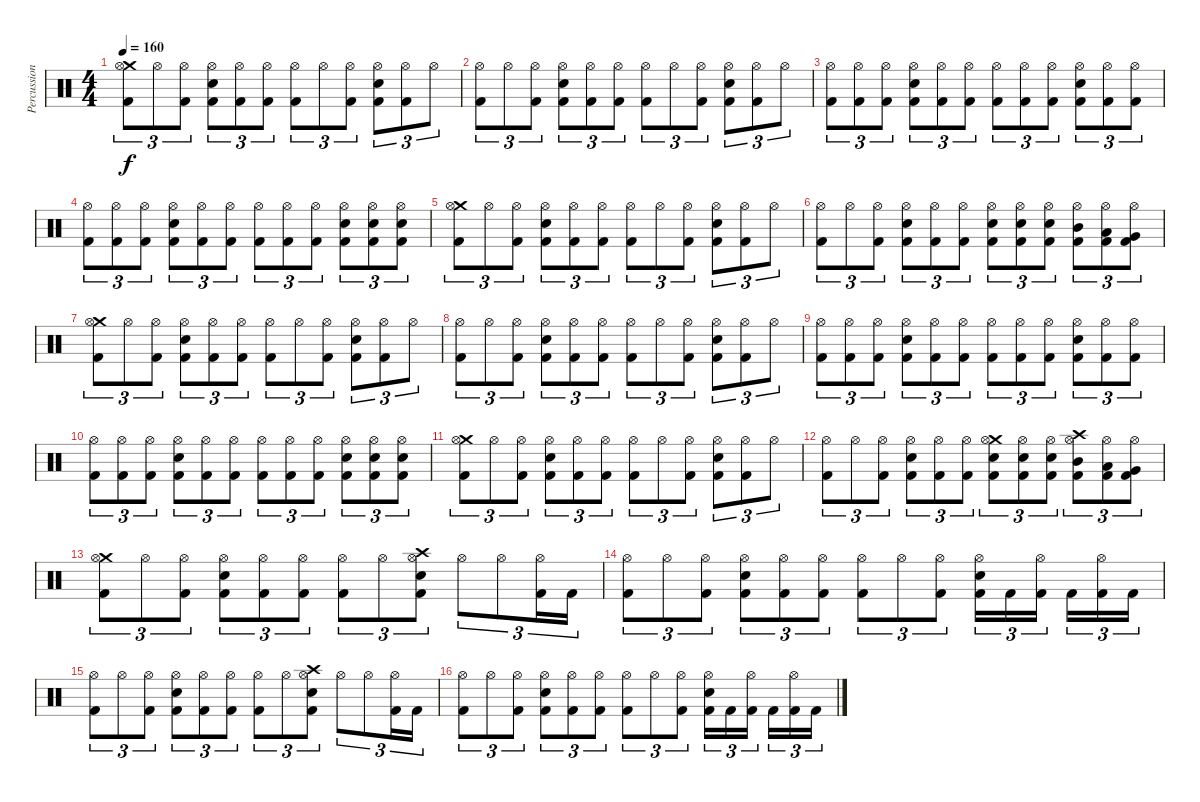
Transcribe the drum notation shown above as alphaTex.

\track ("Percussion" "Percussion") {instrument percussion}
\staff {score}
\articulation defaults
\ts (4 4)
\tempo 160
\clef neutral
\ks c
("Crash medium (hit)" "Hi-Hat (open)" "Kick (hit) 2").8{tu (3 2) dy f} "Hi-Hat (open)".8{tu (3 2)} ("Hi-Hat (open)" "Kick (hit) 2").8{tu (3 2)} ("Hi-Hat (open)" "Electric Snare (hit)" "Kick (hit) 2").8{tu (3 2)} ("Hi-Hat (open)" "Kick (hit) 2").8{tu (3 2)} ("Hi-Hat (open)" "Kick (hit) 2").8{tu (3 2)} ("Hi-Hat (open)" "Kick (hit) 2").8{tu (3 2)} "Hi-Hat (open)".8{tu (3 2)} ("Hi-Hat (open)" "Kick (hit) 2").8{tu (3 2)} ("Hi-Hat (open)" "Electric Snare (hit)" "Kick (hit) 2").8{tu (3 2)} ("Hi-Hat (open)" "Kick (hit) 2").8{tu (3 2)} "Hi-Hat (open)".8{tu (3 2)} |
("Hi-Hat (open)" "Kick (hit) 2").8{tu (3 2)} "Hi-Hat (open)".8{tu (3 2)} ("Hi-Hat (open)" "Kick (hit) 2").8{tu (3 2)} ("Hi-Hat (open)" "Electric Snare (hit)" "Kick (hit) 2").8{tu (3 2)} ("Hi-Hat (open)" "Kick (hit) 2").8{tu (3 2)} ("Hi-Hat (open)" "Kick (hit) 2").8{tu (3 2)} ("Hi-Hat (open)" "Kick (hit) 2").8{tu (3 2)} "Hi-Hat (open)".8{tu (3 2)} ("Hi-Hat (open)" "Kick (hit) 2").8{tu (3 2)} ("Hi-Hat (open)" "Electric Snare (hit)" "Kick (hit) 2").8{tu (3 2)} ("Hi-Hat (open)" "Kick (hit) 2").8{tu (3 2)} "Hi-Hat (open)".8{tu (3 2)} |
("Hi-Hat (open)" "Kick (hit) 2").8{tu (3 2)} ("Hi-Hat (open)" "Kick (hit) 2").8{tu (3 2)} ("Hi-Hat (open)" "Kick (hit) 2").8{tu (3 2)} ("Hi-Hat (open)" "Electric Snare (hit)" "Kick (hit) 2").8{tu (3 2)} ("Hi-Hat (open)" "Kick (hit) 2").8{tu (3 2)} ("Hi-Hat (open)" "Kick (hit) 2").8{tu (3 2)} ("Hi-Hat (open)" "Kick (hit) 2").8{tu (3 2)} ("Hi-Hat (open)" "Kick (hit) 2").8{tu (3 2)} ("Hi-Hat (open)" "Kick (hit) 2").8{tu (3 2)} ("Hi-Hat (open)" "Electric Snare (hit)" "Kick (hit) 2").8{tu (3 2)} ("Hi-Hat (open)" "Kick (hit) 2").8{tu (3 2)} ("Hi-Hat (open)" "Kick (hit) 2").8{tu (3 2)} |
("Hi-Hat (open)" "Kick (hit) 2").8{tu (3 2)} ("Hi-Hat (open)" "Kick (hit) 2").8{tu (3 2)} ("Hi-Hat (open)" "Kick (hit) 2").8{tu (3 2)} ("Hi-Hat (open)" "Electric Snare (hit)" "Kick (hit) 2").8{tu (3 2)} ("Hi-Hat (open)" "Kick (hit) 2").8{tu (3 2)} ("Hi-Hat (open)" "Kick (hit) 2").8{tu (3 2)} ("Hi-Hat (open)" "Kick (hit) 2").8{tu (3 2)} ("Hi-Hat (open)" "Kick (hit) 2").8{tu (3 2)} ("Hi-Hat (open)" "Kick (hit) 2").8{tu (3 2)} ("Hi-Hat (open)" "Electric Snare (hit)" "Kick (hit) 2").8{tu (3 2)} ("Hi-Hat (open)" "Electric Snare (hit)" "Kick (hit) 2").8{tu (3 2)} ("Hi-Hat (open)" "Electric Snare (hit)" "Kick (hit) 2").8{tu (3 2)} |
("Crash medium (hit)" "Hi-Hat (open)" "Kick (hit) 2").8{tu (3 2)} "Hi-Hat (open)".8{tu (3 2)} ("Hi-Hat (open)" "Kick (hit) 2").8{tu (3 2)} ("Hi-Hat (open)" "Electric Snare (hit)" "Kick (hit) 2").8{tu (3 2)} ("Hi-Hat (open)" "Kick (hit) 2").8{tu (3 2)} ("Hi-Hat (open)" "Kick (hit) 2").8{tu (3 2)} ("Hi-Hat (open)" "Kick (hit) 2").8{tu (3 2)} "Hi-Hat (open)".8{tu (3 2)} ("Hi-Hat (open)" "Kick (hit) 2").8{tu (3 2)} ("Hi-Hat (open)" "Electric Snare (hit)" "Kick (hit) 2").8{tu (3 2)} ("Hi-Hat (open)" "Kick (hit) 2").8{tu (3 2)} "Hi-Hat (open)".8{tu (3 2)} |
("Hi-Hat (open)" "Kick (hit) 2").8{tu (3 2)} "Hi-Hat (open)".8{tu (3 2)} ("Hi-Hat (open)" "Kick (hit) 2").8{tu (3 2)} ("Hi-Hat (open)" "Electric Snare (hit)" "Kick (hit) 2").8{tu (3 2)} ("Hi-Hat (open)" "Kick (hit) 2").8{tu (3 2)} ("Hi-Hat (open)" "Kick (hit) 2").8{tu (3 2)} ("Hi-Hat (open)" "Electric Snare (hit)" "Kick (hit) 2").8{tu (3 2)} ("Hi-Hat (open)" "Electric Snare (hit)" "Kick (hit) 2").8{tu (3 2)} ("Hi-Hat (open)" "Electric Snare (hit)" "Kick (hit) 2").8{tu (3 2)} ("Hi-Hat (open)" "Mid Tom (hit)" "Kick (hit) 2").8{tu (3 2)} ("Hi-Hat (open)" "Low Tom (hit)" "Kick (hit) 2").8{tu (3 2)} ("Hi-Hat (open)" "Very Low Tom (hit)" "Kick (hit) 2").8{tu (3 2)} |
("Crash medium (hit)" "Hi-Hat (open)" "Kick (hit) 2").8{tu (3 2)} "Hi-Hat (open)".8{tu (3 2)} ("Hi-Hat (open)" "Kick (hit) 2").8{tu (3 2)} ("Hi-Hat (open)" "Electric Snare (hit)" "Kick (hit) 2").8{tu (3 2)} ("Hi-Hat (open)" "Kick (hit) 2").8{tu (3 2)} ("Hi-Hat (open)" "Kick (hit) 2").8{tu (3 2)} ("Hi-Hat (open)" "Kick (hit) 2").8{tu (3 2)} "Hi-Hat (open)".8{tu (3 2)} ("Hi-Hat (open)" "Kick (hit) 2").8{tu (3 2)} ("Hi-Hat (open)" "Electric Snare (hit)" "Kick (hit) 2").8{tu (3 2)} ("Hi-Hat (open)" "Kick (hit) 2").8{tu (3 2)} "Hi-Hat (open)".8{tu (3 2)} |
("Hi-Hat (open)" "Kick (hit) 2").8{tu (3 2)} "Hi-Hat (open)".8{tu (3 2)} ("Hi-Hat (open)" "Kick (hit) 2").8{tu (3 2)} ("Hi-Hat (open)" "Electric Snare (hit)" "Kick (hit) 2").8{tu (3 2)} ("Hi-Hat (open)" "Kick (hit) 2").8{tu (3 2)} ("Hi-Hat (open)" "Kick (hit) 2").8{tu (3 2)} ("Hi-Hat (open)" "Kick (hit) 2").8{tu (3 2)} "Hi-Hat (open)".8{tu (3 2)} ("Hi-Hat (open)" "Kick (hit) 2").8{tu (3 2)} ("Hi-Hat (open)" "Electric Snare (hit)" "Kick (hit) 2").8{tu (3 2)} ("Hi-Hat (open)" "Kick (hit) 2").8{tu (3 2)} "Hi-Hat (open)".8{tu (3 2)} |
("Hi-Hat (open)" "Kick (hit) 2").8{tu (3 2)} ("Hi-Hat (open)" "Kick (hit) 2").8{tu (3 2)} ("Hi-Hat (open)" "Kick (hit) 2").8{tu (3 2)} ("Hi-Hat (open)" "Electric Snare (hit)" "Kick (hit) 2").8{tu (3 2)} ("Hi-Hat (open)" "Kick (hit) 2").8{tu (3 2)} ("Hi-Hat (open)" "Kick (hit) 2").8{tu (3 2)} ("Hi-Hat (open)" "Kick (hit) 2").8{tu (3 2)} ("Hi-Hat (open)" "Kick (hit) 2").8{tu (3 2)} ("Hi-Hat (open)" "Kick (hit) 2").8{tu (3 2)} ("Hi-Hat (open)" "Electric Snare (hit)" "Kick (hit) 2").8{tu (3 2)} ("Hi-Hat (open)" "Kick (hit) 2").8{tu (3 2)} ("Hi-Hat (open)" "Kick (hit) 2").8{tu (3 2)} |
("Hi-Hat (open)" "Kick (hit) 2").8{tu (3 2)} ("Hi-Hat (open)" "Kick (hit) 2").8{tu (3 2)} ("Hi-Hat (open)" "Kick (hit) 2").8{tu (3 2)} ("Hi-Hat (open)" "Electric Snare (hit)" "Kick (hit) 2").8{tu (3 2)} ("Hi-Hat (open)" "Kick (hit) 2").8{tu (3 2)} ("Hi-Hat (open)" "Kick (hit) 2").8{tu (3 2)} ("Hi-Hat (open)" "Kick (hit) 2").8{tu (3 2)} ("Hi-Hat (open)" "Kick (hit) 2").8{tu (3 2)} ("Hi-Hat (open)" "Kick (hit) 2").8{tu (3 2)} ("Hi-Hat (open)" "Electric Snare (hit)" "Kick (hit) 2").8{tu (3 2)} ("Hi-Hat (open)" "Electric Snare (hit)" "Kick (hit) 2").8{tu (3 2)} ("Hi-Hat (open)" "Electric Snare (hit)" "Kick (hit) 2").8{tu (3 2)} |
("Crash medium (hit)" "Hi-Hat (open)" "Kick (hit) 2").8{tu (3 2)} "Hi-Hat (open)".8{tu (3 2)} ("Hi-Hat (open)" "Kick (hit) 2").8{tu (3 2)} ("Hi-Hat (open)" "Electric Snare (hit)" "Kick (hit) 2").8{tu (3 2)} ("Hi-Hat (open)" "Kick (hit) 2").8{tu (3 2)} ("Hi-Hat (open)" "Kick (hit) 2").8{tu (3 2)} ("Hi-Hat (open)" "Kick (hit) 2").8{tu (3 2)} "Hi-Hat (open)".8{tu (3 2)} ("Hi-Hat (open)" "Kick (hit) 2").8{tu (3 2)} ("Hi-Hat (open)" "Electric Snare (hit)" "Kick (hit) 2").8{tu (3 2)} ("Hi-Hat (open)" "Kick (hit) 2").8{tu (3 2)} "Hi-Hat (open)".8{tu (3 2)} |
("Hi-Hat (open)" "Kick (hit) 2").8{tu (3 2)} "Hi-Hat (open)".8{tu (3 2)} ("Hi-Hat (open)" "Kick (hit) 2").8{tu (3 2)} ("Hi-Hat (open)" "Electric Snare (hit)" "Kick (hit) 2").8{tu (3 2)} ("Hi-Hat (open)" "Kick (hit) 2").8{tu (3 2)} ("Hi-Hat (open)" "Kick (hit) 2").8{tu (3 2)} ("Crash medium (hit)" "Hi-Hat (open)" "Electric Snare (hit)" "Kick (hit) 2").8{tu (3 2)} ("Hi-Hat (open)" "Electric Snare (hit)" "Kick (hit) 2").8{tu (3 2)} ("Hi-Hat (open)" "Electric Snare (hit)" "Kick (hit) 2").8{tu (3 2)} ("Crash high (hit)" "Hi-Hat (open)" "Mid Tom (hit)" "Kick (hit) 2").8{tu (3 2)} ("Hi-Hat (open)" "Low Tom (hit)" "Kick (hit) 2").8{tu (3 2)} ("Hi-Hat (open)" "Very Low Tom (hit)" "Kick (hit) 2").8{tu (3 2)} |
("Crash medium (hit)" "Hi-Hat (open)" "Kick (hit) 2").8{tu (3 2)} "Hi-Hat (open)".8{tu (3 2)} ("Hi-Hat (open)" "Kick (hit) 2").8{tu (3 2)} ("Hi-Hat (open)" "Electric Snare (hit)" "Kick (hit) 2").8{tu (3 2)} ("Hi-Hat (open)" "Kick (hit) 2").8{tu (3 2)} ("Hi-Hat (open)" "Kick (hit) 2").8{tu (3 2)} ("Hi-Hat (open)" "Kick (hit) 2").8{tu (3 2)} "Hi-Hat (open)".8{tu (3 2)} ("Crash high (hit)" "Hi-Hat (open)" "Electric Snare (hit)" "Kick (hit) 2").8{tu (3 2)} "Hi-Hat (open)".8{tu (3 2)} "Hi-Hat (open)".8{tu (3 2)} ("Hi-Hat (open)" "Kick (hit) 2").16{tu (3 2)} "Kick (hit) 2".16{tu (3 2)} |
("Hi-Hat (open)" "Kick (hit) 2").8{tu (3 2)} "Hi-Hat (open)".8{tu (3 2)} ("Hi-Hat (open)" "Kick (hit) 2").8{tu (3 2)} ("Hi-Hat (open)" "Electric Snare (hit)" "Kick (hit) 2").8{tu (3 2)} ("Hi-Hat (open)" "Kick (hit) 2").8{tu (3 2)} ("Hi-Hat (open)" "Kick (hit) 2").8{tu (3 2)} ("Hi-Hat (open)" "Kick (hit) 2").8{tu (3 2)} "Hi-Hat (open)".8{tu (3 2)} ("Hi-Hat (open)" "Kick (hit) 2").8{tu (3 2)} ("Hi-Hat (open)" "Electric Snare (hit)" "Kick (hit) 2").16{tu (3 2)} "Kick (hit) 2".16{tu (3 2)} ("Hi-Hat (open)" "Kick (hit) 2").16{tu (3 2)} "Kick (hit) 2".16{tu (3 2)} ("Hi-Hat (open)" "Kick (hit) 2").16{tu (3 2)} "Kick (hit) 2".16{tu (3 2)} |
("Hi-Hat (open)" "Kick (hit) 2").8{tu (3 2)} "Hi-Hat (open)".8{tu (3 2)} ("Hi-Hat (open)" "Kick (hit) 2").8{tu (3 2)} ("Hi-Hat (open)" "Electric Snare (hit)" "Kick (hit) 2").8{tu (3 2)} ("Hi-Hat (open)" "Kick (hit) 2").8{tu (3 2)} ("Hi-Hat (open)" "Kick (hit) 2").8{tu (3 2)} ("Hi-Hat (open)" "Kick (hit) 2").8{tu (3 2)} "Hi-Hat (open)".8{tu (3 2)} ("Crash high (hit)" "Hi-Hat (open)" "Electric Snare (hit)" "Kick (hit) 2").8{tu (3 2)} "Hi-Hat (open)".8{tu (3 2)} "Hi-Hat (open)".8{tu (3 2)} ("Hi-Hat (open)" "Kick (hit) 2").16{tu (3 2)} "Kick (hit) 2".16{tu (3 2)} |
("Hi-Hat (open)" "Kick (hit) 2").8{tu (3 2)} "Hi-Hat (open)".8{tu (3 2)} ("Hi-Hat (open)" "Kick (hit) 2").8{tu (3 2)} ("Hi-Hat (open)" "Electric Snare (hit)" "Kick (hit) 2").8{tu (3 2)} ("Hi-Hat (open)" "Kick (hit) 2").8{tu (3 2)} ("Hi-Hat (open)" "Kick (hit) 2").8{tu (3 2)} ("Hi-Hat (open)" "Kick (hit) 2").8{tu (3 2)} "Hi-Hat (open)".8{tu (3 2)} ("Hi-Hat (open)" "Kick (hit) 2").8{tu (3 2)} ("Hi-Hat (open)" "Electric Snare (hit)" "Kick (hit) 2").16{tu (3 2)} "Kick (hit) 2".16{tu (3 2)} ("Hi-Hat (open)" "Kick (hit) 2").16{tu (3 2)} "Kick (hit) 2".16{tu (3 2)} ("Hi-Hat (open)" "Kick (hit) 2").16{tu (3 2)} "Kick (hit) 2".16{tu (3 2)}
